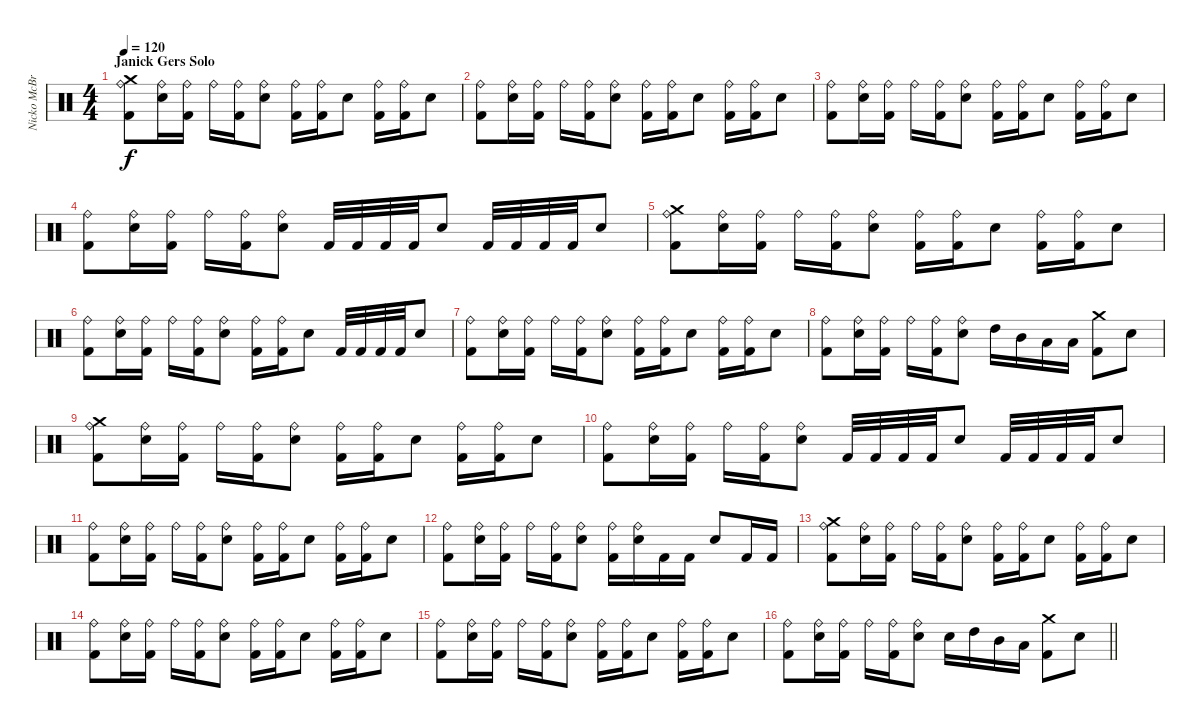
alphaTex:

\track ("Nicko McBrain" "Nicko McBr") {instrument percussion}
\staff {score}
\articulation defaults
\ts (4 4)
\section ("" "Janick Gers Solo")
\tempo 120
\clef neutral
\ks c
("Crash medium (hit)" "Kick (hit) 2" "Ride (bell)").8{dy f} ("Snare (hit) 2" "Ride (bell)").16 ("Kick (hit) 2" "Ride (bell)").16 "Ride (bell)".16 ("Kick (hit) 2" "Ride (bell)").16 ("Snare (hit) 2" "Ride (bell)").8 ("Kick (hit) 2" "Ride (bell)").16 ("Kick (hit) 2" "Ride (bell)").16 "Snare (hit) 2".8 ("Kick (hit) 2" "Ride (bell)").16 ("Kick (hit) 2" "Ride (bell)").16 "Snare (hit) 2".8 |
("Kick (hit) 2" "Ride (bell)").8 ("Snare (hit) 2" "Ride (bell)").16 ("Kick (hit) 2" "Ride (bell)").16 "Ride (bell)".16 ("Kick (hit) 2" "Ride (bell)").16 ("Snare (hit) 2" "Ride (bell)").8 ("Kick (hit) 2" "Ride (bell)").16 ("Kick (hit) 2" "Ride (bell)").16 "Snare (hit) 2".8 ("Kick (hit) 2" "Ride (bell)").16 ("Kick (hit) 2" "Ride (bell)").16 "Snare (hit) 2".8 |
("Kick (hit) 2" "Ride (bell)").8 ("Snare (hit) 2" "Ride (bell)").16 ("Kick (hit) 2" "Ride (bell)").16 "Ride (bell)".16 ("Kick (hit) 2" "Ride (bell)").16 ("Snare (hit) 2" "Ride (bell)").8 ("Kick (hit) 2" "Ride (bell)").16 ("Kick (hit) 2" "Ride (bell)").16 "Snare (hit) 2".8 ("Kick (hit) 2" "Ride (bell)").16 ("Kick (hit) 2" "Ride (bell)").16 "Snare (hit) 2".8 |
("Kick (hit) 2" "Ride (bell)").8 ("Snare (hit) 2" "Ride (bell)").16 ("Kick (hit) 2" "Ride (bell)").16 "Ride (bell)".16 ("Kick (hit) 2" "Ride (bell)").16 ("Snare (hit) 2" "Ride (bell)").8 "Kick (hit) 2".32 "Kick (hit) 2".32 "Kick (hit) 2".32 "Kick (hit) 2".32 "Snare (hit) 2".8 "Kick (hit) 2".32 "Kick (hit) 2".32 "Kick (hit) 2".32 "Kick (hit) 2".32 "Snare (hit) 2".8 |
("Crash medium (hit)" "Kick (hit) 2" "Ride (bell)").8 ("Snare (hit) 2" "Ride (bell)").16 ("Kick (hit) 2" "Ride (bell)").16 "Ride (bell)".16 ("Kick (hit) 2" "Ride (bell)").16 ("Snare (hit) 2" "Ride (bell)").8 ("Kick (hit) 2" "Ride (bell)").16 ("Kick (hit) 2" "Ride (bell)").16 "Snare (hit) 2".8 ("Kick (hit) 2" "Ride (bell)").16 ("Kick (hit) 2" "Ride (bell)").16 "Snare (hit) 2".8 |
("Kick (hit) 2" "Ride (bell)").8 ("Snare (hit) 2" "Ride (bell)").16 ("Kick (hit) 2" "Ride (bell)").16 "Ride (bell)".16 ("Kick (hit) 2" "Ride (bell)").16 ("Snare (hit) 2" "Ride (bell)").8 ("Kick (hit) 2" "Ride (bell)").16 ("Kick (hit) 2" "Ride (bell)").16 "Snare (hit) 2".8 "Kick (hit) 2".32 "Kick (hit) 2".32 "Kick (hit) 2".32 "Kick (hit) 2".32 "Snare (hit) 2".8 |
("Kick (hit) 2" "Ride (bell)").8 ("Snare (hit) 2" "Ride (bell)").16 ("Kick (hit) 2" "Ride (bell)").16 "Ride (bell)".16 ("Kick (hit) 2" "Ride (bell)").16 ("Snare (hit) 2" "Ride (bell)").8 ("Kick (hit) 2" "Ride (bell)").16 ("Kick (hit) 2" "Ride (bell)").16 "Snare (hit) 2".8 ("Kick (hit) 2" "Ride (bell)").16 ("Kick (hit) 2" "Ride (bell)").16 "Snare (hit) 2".8 |
("Kick (hit) 2" "Ride (bell)").8 ("Snare (hit) 2" "Ride (bell)").16 ("Kick (hit) 2" "Ride (bell)").16 "Ride (bell)".16 ("Kick (hit) 2" "Ride (bell)").16 ("Snare (hit) 2" "Ride (bell)").8 "High Tom (hit)".16 "Mid Tom (hit)".16 "Low Tom (hit)".16 "Low Tom (hit)".16 ("Crash medium (hit)" "Kick (hit) 2").8 "Snare (hit) 2".8 |
("Crash medium (hit)" "Kick (hit) 2" "Ride (bell)").8 ("Snare (hit) 2" "Ride (bell)").16 ("Kick (hit) 2" "Ride (bell)").16 "Ride (bell)".16 ("Kick (hit) 2" "Ride (bell)").16 ("Snare (hit) 2" "Ride (bell)").8 ("Kick (hit) 2" "Ride (bell)").16 ("Kick (hit) 2" "Ride (bell)").16 "Snare (hit) 2".8 ("Kick (hit) 2" "Ride (bell)").16 ("Kick (hit) 2" "Ride (bell)").16 "Snare (hit) 2".8 |
("Kick (hit) 2" "Ride (bell)").8 ("Snare (hit) 2" "Ride (bell)").16 ("Kick (hit) 2" "Ride (bell)").16 "Ride (bell)".16 ("Kick (hit) 2" "Ride (bell)").16 ("Snare (hit) 2" "Ride (bell)").8 "Kick (hit) 2".32 "Kick (hit) 2".32 "Kick (hit) 2".32 "Kick (hit) 2".32 "Snare (hit) 2".8 "Kick (hit) 2".32 "Kick (hit) 2".32 "Kick (hit) 2".32 "Kick (hit) 2".32 "Snare (hit) 2".8 |
("Kick (hit) 2" "Ride (bell)").8 ("Snare (hit) 2" "Ride (bell)").16 ("Kick (hit) 2" "Ride (bell)").16 "Ride (bell)".16 ("Kick (hit) 2" "Ride (bell)").16 ("Snare (hit) 2" "Ride (bell)").8 ("Kick (hit) 2" "Ride (bell)").16 ("Kick (hit) 2" "Ride (bell)").16 "Snare (hit) 2".8 ("Kick (hit) 2" "Ride (bell)").16 ("Kick (hit) 2" "Ride (bell)").16 "Snare (hit) 2".8 |
("Kick (hit) 2" "Ride (bell)").8 ("Snare (hit) 2" "Ride (bell)").16 ("Kick (hit) 2" "Ride (bell)").16 "Ride (bell)".16 ("Kick (hit) 2" "Ride (bell)").16 ("Snare (hit) 2" "Ride (bell)").8 ("Kick (hit) 2" "Ride (bell)").16 ("Snare (hit) 2" "Ride (bell)").16 "Kick (hit) 2".16 "Kick (hit) 2".16 "Snare (hit) 2".8 "Kick (hit) 2".16 "Kick (hit) 2".16 |
("Crash medium (hit)" "Kick (hit) 2" "Ride (bell)").8 ("Snare (hit) 2" "Ride (bell)").16 ("Kick (hit) 2" "Ride (bell)").16 "Ride (bell)".16 ("Kick (hit) 2" "Ride (bell)").16 ("Snare (hit) 2" "Ride (bell)").8 ("Kick (hit) 2" "Ride (bell)").16 ("Kick (hit) 2" "Ride (bell)").16 "Snare (hit) 2".8 ("Kick (hit) 2" "Ride (bell)").16 ("Kick (hit) 2" "Ride (bell)").16 "Snare (hit) 2".8 |
("Kick (hit) 2" "Ride (bell)").8 ("Snare (hit) 2" "Ride (bell)").16 ("Kick (hit) 2" "Ride (bell)").16 "Ride (bell)".16 ("Kick (hit) 2" "Ride (bell)").16 ("Snare (hit) 2" "Ride (bell)").8 ("Kick (hit) 2" "Ride (bell)").16 ("Kick (hit) 2" "Ride (bell)").16 "Snare (hit) 2".8 ("Kick (hit) 2" "Ride (bell)").16 ("Kick (hit) 2" "Ride (bell)").16 "Snare (hit) 2".8 |
("Kick (hit) 2" "Ride (bell)").8 ("Snare (hit) 2" "Ride (bell)").16 ("Kick (hit) 2" "Ride (bell)").16 "Ride (bell)".16 ("Kick (hit) 2" "Ride (bell)").16 ("Snare (hit) 2" "Ride (bell)").8 ("Kick (hit) 2" "Ride (bell)").16 ("Kick (hit) 2" "Ride (bell)").16 "Snare (hit) 2".8 ("Kick (hit) 2" "Ride (bell)").16 ("Kick (hit) 2" "Ride (bell)").16 "Snare (hit) 2".8 |
\barLineRight lightlight
("Kick (hit) 2" "Ride (bell)").8 ("Snare (hit) 2" "Ride (bell)").16 ("Kick (hit) 2" "Ride (bell)").16 "Ride (bell)".16 ("Kick (hit) 2" "Ride (bell)").16 ("Snare (hit) 2" "Ride (bell)").8 "Snare (hit) 2".16 "High Tom (hit)".16 "Mid Tom (hit)".16 "Low Tom (hit)".16 ("Crash medium (hit)" "Kick (hit) 2").8 "Snare (hit) 2".8
